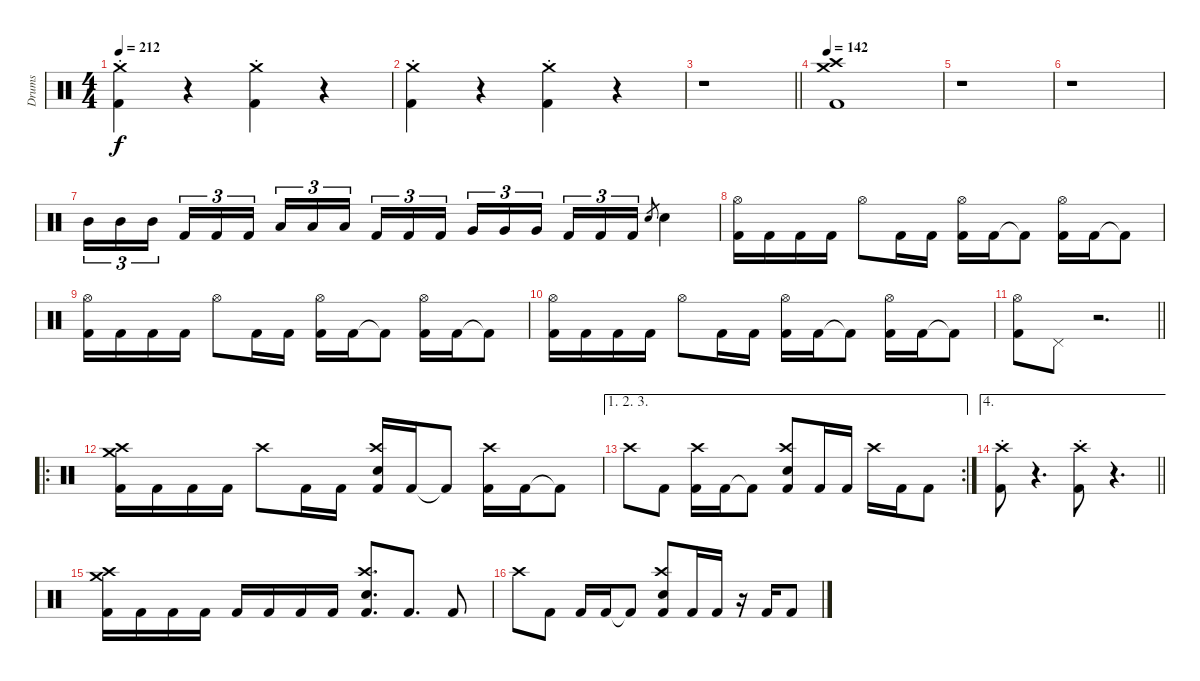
\track ("Drums" "Drums") {instrument percussion}
\staff {score}
\articulation defaults
\ts (4 4)
\tempo 212
\clef neutral
\ks c
("Crash medium (hit)"{st} "Kick (hit) 2").4{dy f} r.4{volume 0} ("Crash medium (hit)"{st} "Kick (hit) 2").4{volume 14} r.4{volume 0} |
("Crash medium (hit)"{st} "Kick (hit) 2").4{volume 14} r.4{volume 0} ("Crash medium (hit)"{st} "Kick (hit) 2").4{volume 14} r.4{volume 0} |
\barLineRight lightlight
r.1 |
\tempo 142
("Crash medium (hit)" "Crash high (hit)" "Kick (hit) 2").1{volume 14} |
r.1 |
r.1 |
"Mid Tom (hit)".16{tu (3 2)} "Mid Tom (hit)".16{tu (3 2)} "Mid Tom (hit)".16{tu (3 2) beam splitsecondary} "Kick (hit) 2".16{tu (3 2)} "Kick (hit) 2".16{tu (3 2)} "Kick (hit) 2".16{tu (3 2)} "Low Tom (hit)".16{tu (3 2)} "Low Tom (hit)".16{tu (3 2)} "Low Tom (hit)".16{tu (3 2) beam splitsecondary} "Kick (hit) 2".16{tu (3 2)} "Kick (hit) 2".16{tu (3 2)} "Kick (hit) 2".16{tu (3 2)} "Very Low Tom (hit)".16{tu (3 2)} "Very Low Tom (hit)".16{tu (3 2)} "Very Low Tom (hit)".16{tu (3 2) beam splitsecondary} "Kick (hit) 2".16{tu (3 2)} "Kick (hit) 2".16{tu (3 2)} "Kick (hit) 2".16{tu (3 2)} "Electric Snare (hit)".8{gr} "Electric Snare (hit)".4 |
("Hi-Hat (open)" "Kick (hit) 2").16 "Kick (hit) 2".16 "Kick (hit) 2".16 "Kick (hit) 2".16 "Hi-Hat (open)".8 "Kick (hit) 2".16 "Kick (hit) 2".16 ("Hi-Hat (open)" "Kick (hit) 2").16 "Kick (hit) 2".16 "Kick (hit) 2"{t}.8 ("Hi-Hat (open)" "Kick (hit) 2").16 "Kick (hit) 2".16 "Kick (hit) 2"{t}.8 |
("Hi-Hat (open)" "Kick (hit) 2").16 "Kick (hit) 2".16 "Kick (hit) 2".16 "Kick (hit) 2".16 "Hi-Hat (open)".8 "Kick (hit) 2".16 "Kick (hit) 2".16 ("Hi-Hat (open)" "Kick (hit) 2").16 "Kick (hit) 2".16 "Kick (hit) 2"{t}.8 ("Hi-Hat (open)" "Kick (hit) 2").16 "Kick (hit) 2".16 "Kick (hit) 2"{t}.8 |
("Hi-Hat (open)" "Kick (hit) 2").16 "Kick (hit) 2".16 "Kick (hit) 2".16 "Kick (hit) 2".16 "Hi-Hat (open)".8 "Kick (hit) 2".16 "Kick (hit) 2".16 ("Hi-Hat (open)" "Kick (hit) 2").16 "Kick (hit) 2".16 "Kick (hit) 2"{t}.8 ("Hi-Hat (open)" "Kick (hit) 2").16 "Kick (hit) 2".16 "Kick (hit) 2"{t}.8 |
\barLineRight lightlight
("Hi-Hat (open)" "Kick (hit) 2").8 "Pedal Hi-Hat (hit)".8 r.2{d} |
\ro
("Crash medium (hit)" "Crash high (hit)" "Kick (hit) 2").16 "Kick (hit) 2".16 "Kick (hit) 2".16 "Kick (hit) 2".16 "Crash high (hit)".8 "Kick (hit) 2".16 "Kick (hit) 2".16 ("Crash high (hit)" "Electric Snare (hit)" "Kick (hit) 2").16 "Kick (hit) 2".16 "Kick (hit) 2"{t}.8 ("Crash high (hit)" "Kick (hit) 2").16 "Kick (hit) 2".16 "Kick (hit) 2"{t}.8 |
\ae (1 2 3)
\rc 2 "Crash high (hit)".8 "Kick (hit) 2".8
("Crash high (hit)" "Kick (hit) 2").16 "Kick (hit) 2".16 "Kick (hit) 2"{t}.8 ("Crash high (hit)" "Electric Snare (hit)" "Kick (hit) 2").8 "Kick (hit) 2".16 "Kick (hit) 2".16 "Crash high (hit)".16 "Kick (hit) 2".16 "Kick (hit) 2".8 |
\ae 4
\barLineRight lightlight
("Crash high (hit)"{st} "Kick (hit) 2").8 r.4{d volume 0} ("Crash high (hit)"{st} "Kick (hit) 2").8{volume 14} r.4{d volume 0} |
("Crash medium (hit)" "Crash high (hit)" "Kick (hit) 2").16{volume 14} "Kick (hit) 2".16 "Kick (hit) 2".16 "Kick (hit) 2".16 "Kick (hit) 2".16 "Kick (hit) 2".16 "Kick (hit) 2".16 "Kick (hit) 2".16 ("Crash high (hit)" "Electric Snare (hit)" "Kick (hit) 2").8{d} "Kick (hit) 2".8{d} "Kick (hit) 2".8 |
"Crash high (hit)".8 "Kick (hit) 2".8 "Kick (hit) 2".16 "Kick (hit) 2".16 "Kick (hit) 2"{t}.8 ("Crash high (hit)" "Electric Snare (hit)" "Kick (hit) 2").8 "Kick (hit) 2".16 "Kick (hit) 2".16 r.16 "Kick (hit) 2".16 "Kick (hit) 2".8
